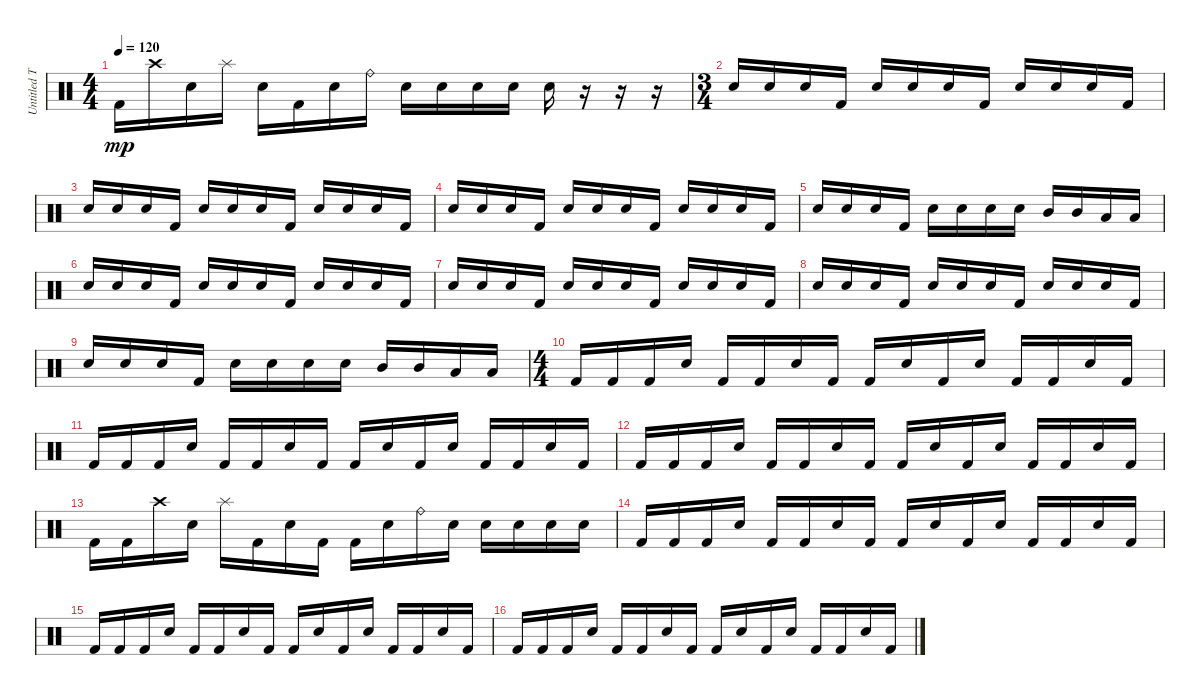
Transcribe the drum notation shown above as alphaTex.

\track ("Untitled Track" "Untitled T") {instrument percussion}
\staff {score}
\articulation defaults
\ts (4 4)
\tempo 120
\clef neutral
\ks c "Kick (hit) 2".16{dy mp} "Crash high (hit)".16 "Snare (hit) 2".16 "Splash (hit)".16 "Snare (hit) 2".16 "Kick (hit) 2".16 "Snare (hit) 2".16 "Ride (bell)".16 "Snare (hit) 2".16 "Snare (hit) 2".16 "Snare (hit) 2".16 "Snare (hit) 2".16 "Snare (hit) 2".16
r.16 r.16 r.16 |
\ts (3 4)
"Snare (hit) 2".16 "Snare (hit) 2".16 "Snare (hit) 2".16 "Kick (hit) 2".16 "Snare (hit) 2".16 "Snare (hit) 2".16 "Snare (hit) 2".16 "Kick (hit) 2".16 "Snare (hit) 2".16 "Snare (hit) 2".16 "Snare (hit) 2".16 "Kick (hit) 2".16 |
"Snare (hit) 2".16 "Snare (hit) 2".16 "Snare (hit) 2".16 "Kick (hit) 2".16 "Snare (hit) 2".16 "Snare (hit) 2".16 "Snare (hit) 2".16 "Kick (hit) 2".16 "Snare (hit) 2".16 "Snare (hit) 2".16 "Snare (hit) 2".16 "Kick (hit) 2".16 |
"Snare (hit) 2".16 "Snare (hit) 2".16 "Snare (hit) 2".16 "Kick (hit) 2".16 "Snare (hit) 2".16 "Snare (hit) 2".16 "Snare (hit) 2".16 "Kick (hit) 2".16 "Snare (hit) 2".16 "Snare (hit) 2".16 "Snare (hit) 2".16 "Kick (hit) 2".16 |
"Snare (hit) 2".16 "Snare (hit) 2".16 "Snare (hit) 2".16 "Kick (hit) 2".16 "Snare (hit) 2".16 "Snare (hit) 2".16 "Snare (hit) 2".16 "Snare (hit) 2".16 "Mid Tom (hit)".16 "Mid Tom (hit)".16 "Low Tom (hit)".16 "Low Tom (hit)".16 |
"Snare (hit) 2".16 "Snare (hit) 2".16 "Snare (hit) 2".16 "Kick (hit) 2".16 "Snare (hit) 2".16 "Snare (hit) 2".16 "Snare (hit) 2".16 "Kick (hit) 2".16 "Snare (hit) 2".16 "Snare (hit) 2".16 "Snare (hit) 2".16 "Kick (hit) 2".16 |
"Snare (hit) 2".16 "Snare (hit) 2".16 "Snare (hit) 2".16 "Kick (hit) 2".16 "Snare (hit) 2".16 "Snare (hit) 2".16 "Snare (hit) 2".16 "Kick (hit) 2".16 "Snare (hit) 2".16 "Snare (hit) 2".16 "Snare (hit) 2".16 "Kick (hit) 2".16 |
"Snare (hit) 2".16 "Snare (hit) 2".16 "Snare (hit) 2".16 "Kick (hit) 2".16 "Snare (hit) 2".16 "Snare (hit) 2".16 "Snare (hit) 2".16 "Kick (hit) 2".16 "Snare (hit) 2".16 "Snare (hit) 2".16 "Snare (hit) 2".16 "Kick (hit) 2".16 |
"Snare (hit) 2".16 "Snare (hit) 2".16 "Snare (hit) 2".16 "Kick (hit) 2".16 "Snare (hit) 2".16 "Snare (hit) 2".16 "Snare (hit) 2".16 "Snare (hit) 2".16 "Mid Tom (hit)".16 "Mid Tom (hit)".16 "Low Tom (hit)".16 "Low Tom (hit)".16 |
\ts (4 4)
"Kick (hit) 2".16 "Kick (hit) 2".16 "Kick (hit) 2".16 "Snare (hit) 2".16 "Kick (hit) 2".16 "Kick (hit) 2".16 "Snare (hit) 2".16 "Kick (hit) 2".16 "Kick (hit) 2".16 "Snare (hit) 2".16 "Kick (hit) 2".16 "Snare (hit) 2".16 "Kick (hit) 2".16 "Kick (hit) 2".16 "Snare (hit) 2".16 "Kick (hit) 2".16 |
"Kick (hit) 2".16 "Kick (hit) 2".16 "Kick (hit) 2".16 "Snare (hit) 2".16 "Kick (hit) 2".16 "Kick (hit) 2".16 "Snare (hit) 2".16 "Kick (hit) 2".16 "Kick (hit) 2".16 "Snare (hit) 2".16 "Kick (hit) 2".16 "Snare (hit) 2".16 "Kick (hit) 2".16 "Kick (hit) 2".16 "Snare (hit) 2".16 "Kick (hit) 2".16 |
"Kick (hit) 2".16 "Kick (hit) 2".16 "Kick (hit) 2".16 "Snare (hit) 2".16 "Kick (hit) 2".16 "Kick (hit) 2".16 "Snare (hit) 2".16 "Kick (hit) 2".16 "Kick (hit) 2".16 "Snare (hit) 2".16 "Kick (hit) 2".16 "Snare (hit) 2".16 "Kick (hit) 2".16 "Kick (hit) 2".16 "Snare (hit) 2".16 "Kick (hit) 2".16 |
"Kick (hit) 2".16 "Kick (hit) 2".16 "Crash high (hit)".16 "Snare (hit) 2".16 "Splash (hit)".16 "Kick (hit) 2".16 "Snare (hit) 2".16 "Kick (hit) 2".16 "Kick (hit) 2".16 "Snare (hit) 2".16 "Ride (bell)".16 "Snare (hit) 2".16 "Snare (hit) 2".16 "Snare (hit) 2".16 "Snare (hit) 2".16 "Snare (hit) 2".16 |
"Kick (hit) 2".16 "Kick (hit) 2".16 "Kick (hit) 2".16 "Snare (hit) 2".16 "Kick (hit) 2".16 "Kick (hit) 2".16 "Snare (hit) 2".16 "Kick (hit) 2".16 "Kick (hit) 2".16 "Snare (hit) 2".16 "Kick (hit) 2".16 "Snare (hit) 2".16 "Kick (hit) 2".16 "Kick (hit) 2".16 "Snare (hit) 2".16 "Kick (hit) 2".16 |
"Kick (hit) 2".16 "Kick (hit) 2".16 "Kick (hit) 2".16 "Snare (hit) 2".16 "Kick (hit) 2".16 "Kick (hit) 2".16 "Snare (hit) 2".16 "Kick (hit) 2".16 "Kick (hit) 2".16 "Snare (hit) 2".16 "Kick (hit) 2".16 "Snare (hit) 2".16 "Kick (hit) 2".16 "Kick (hit) 2".16 "Snare (hit) 2".16 "Kick (hit) 2".16 |
"Kick (hit) 2".16 "Kick (hit) 2".16 "Kick (hit) 2".16 "Snare (hit) 2".16 "Kick (hit) 2".16 "Kick (hit) 2".16 "Snare (hit) 2".16 "Kick (hit) 2".16 "Kick (hit) 2".16 "Snare (hit) 2".16 "Kick (hit) 2".16 "Snare (hit) 2".16 "Kick (hit) 2".16 "Kick (hit) 2".16 "Snare (hit) 2".16 "Kick (hit) 2".16
